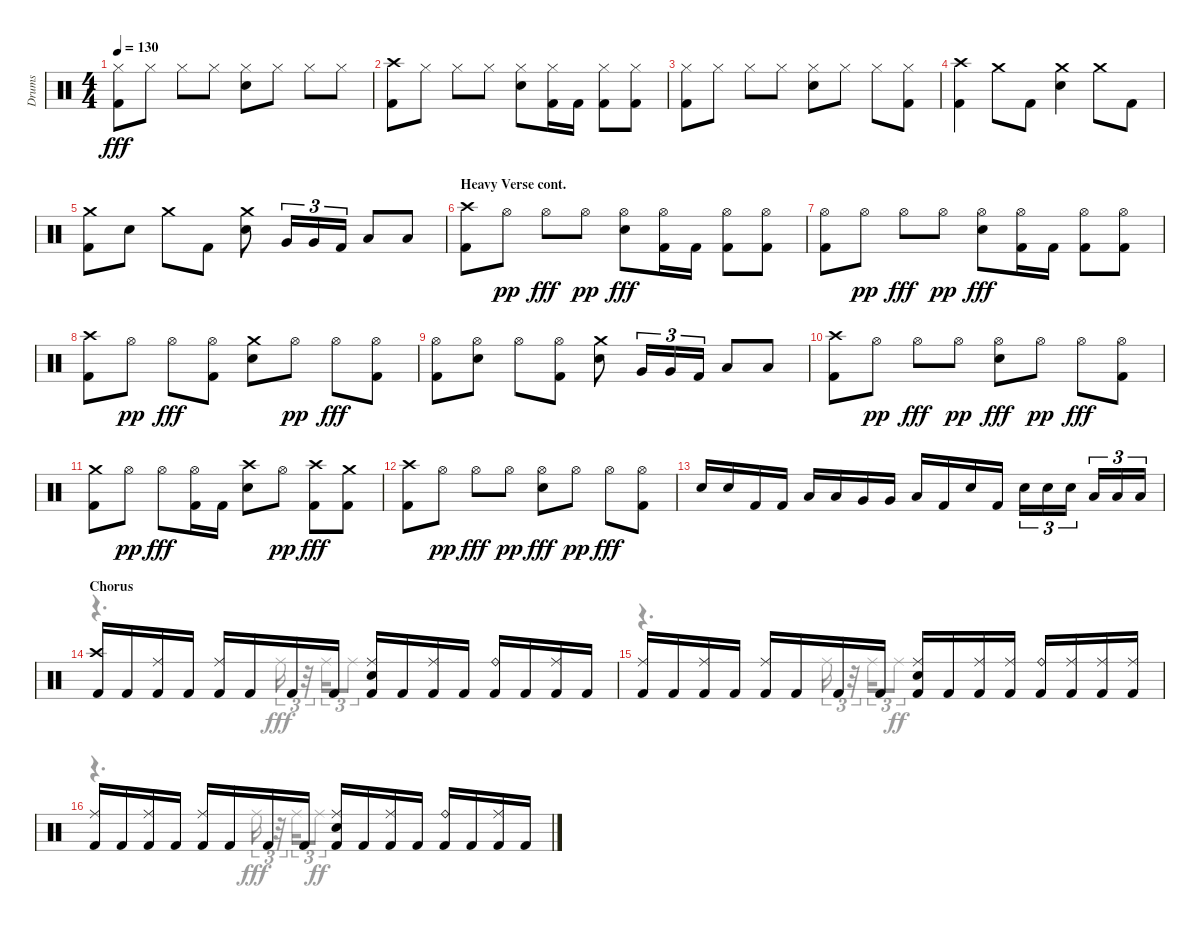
\track ("Drums" "Drums") {instrument percussion}
\staff {score}
\articulation defaults
\voice
\ts (4 4)
\tempo 130
\clef neutral
\ks aminor
("Kick (hit) 2" "Hi-Hat (closed)").8{dy fff} "Hi-Hat (closed)".8 "Hi-Hat (closed)".8 "Hi-Hat (closed)".8 ("Snare (hit) 2" "Hi-Hat (closed)").8 "Hi-Hat (closed)".8 "Hi-Hat (closed)".8 "Hi-Hat (closed)".8 |
("Kick (hit) 2" "Crash high (hit)").8 "Hi-Hat (closed)".8 "Hi-Hat (closed)".8 "Hi-Hat (closed)".8 ("Snare (hit) 2" "Hi-Hat (closed)").8 ("Kick (hit) 2" "Hi-Hat (closed)").16 "Kick (hit) 2".16 ("Kick (hit) 2" "Hi-Hat (closed)").8 ("Kick (hit) 2" "Hi-Hat (closed)").8 |
("Kick (hit) 2" "Hi-Hat (closed)").8 "Hi-Hat (closed)".8 "Hi-Hat (closed)".8 "Hi-Hat (closed)".8 ("Snare (hit) 2" "Hi-Hat (closed)").8 "Hi-Hat (closed)".8 "Hi-Hat (closed)".8 ("Kick (hit) 2" "Hi-Hat (closed)").8 |
("Kick (hit) 2" "Crash high (hit)").4 "Crash medium (hit)".8 "Kick (hit) 2".8 ("Snare (hit) 2" "Crash medium (hit)").4 "Crash medium (hit)".8 "Kick (hit) 2".8 |
("Kick (hit) 2" "Crash medium (hit)").8 "Snare (hit) 2".8 "Crash medium (hit)".8 "Kick (hit) 2".8 ("Snare (hit) 2" "Crash medium (hit)").8 "Very Low Tom (hit)".16{tu (3 2)} "Very Low Tom (hit)".16{tu (3 2)} "Kick (hit) 2".16{tu (3 2)} "Low Floor Tom (hit)".8 "Low Floor Tom (hit)".8 |
\section ("" "Heavy Verse cont.")
("Kick (hit) 2" "Crash high (hit)").8 "Hi-Hat (open)".8{dy pp} "Hi-Hat (open)".8{dy fff} "Hi-Hat (open)".8{dy pp} ("Snare (hit) 2" "Hi-Hat (open)").8{dy fff} ("Kick (hit) 2" "Hi-Hat (open)").16 "Kick (hit) 2".16 ("Kick (hit) 2" "Hi-Hat (open)").8 ("Kick (hit) 2" "Hi-Hat (open)").8 |
("Kick (hit) 2" "Hi-Hat (open)").8 "Hi-Hat (open)".8{dy pp} "Hi-Hat (open)".8{dy fff} "Hi-Hat (open)".8{dy pp} ("Snare (hit) 2" "Hi-Hat (open)").8{dy fff} ("Kick (hit) 2" "Hi-Hat (open)").16 "Kick (hit) 2".16 ("Kick (hit) 2" "Hi-Hat (open)").8 ("Kick (hit) 2" "Hi-Hat (open)").8 |
("Kick (hit) 2" "Crash high (hit)").8 "Hi-Hat (open)".8{dy pp} "Hi-Hat (open)".8{dy fff} ("Kick (hit) 2" "Hi-Hat (open)").8 ("Snare (hit) 2" "Crash medium (hit)").8 "Hi-Hat (open)".8{dy pp} "Hi-Hat (open)".8{dy fff} ("Kick (hit) 2" "Hi-Hat (open)").8 |
("Kick (hit) 2" "Hi-Hat (open)").8 ("Snare (hit) 2" "Hi-Hat (open)").8 "Hi-Hat (open)".8 ("Kick (hit) 2" "Hi-Hat (open)").8 ("Snare (hit) 2" "Crash medium (hit)").8 "Very Low Tom (hit)".16{tu (3 2)} "Very Low Tom (hit)".16{tu (3 2)} "Kick (hit) 2".16{tu (3 2)} "Low Floor Tom (hit)".8 "Low Floor Tom (hit)".8 |
("Kick (hit) 2" "Crash high (hit)").8 "Hi-Hat (open)".8{dy pp} "Hi-Hat (open)".8{dy fff} "Hi-Hat (open)".8{dy pp} ("Snare (hit) 2" "Hi-Hat (open)").8{dy fff} "Hi-Hat (open)".8{dy pp} "Hi-Hat (open)".8{dy fff} ("Kick (hit) 2" "Hi-Hat (open)").8 |
("Kick (hit) 2" "Crash medium (hit)").8 "Hi-Hat (open)".8{dy pp} "Hi-Hat (open)".8{dy fff} ("Kick (hit) 2" "Hi-Hat (open)").16 "Kick (hit) 2".16 ("Snare (hit) 2" "Crash high (hit)").8 "Hi-Hat (open)".8{dy pp} ("Kick (hit) 2" "Crash high (hit)").8{dy fff} ("Kick (hit) 2" "Crash medium (hit)").8 |
("Kick (hit) 2" "Crash high (hit)").8 "Hi-Hat (open)".8{dy pp} "Hi-Hat (open)".8{dy fff} "Hi-Hat (open)".8{dy pp} ("Snare (hit) 2" "Hi-Hat (open)").8{dy fff} "Hi-Hat (open)".8{dy pp} "Hi-Hat (open)".8{dy fff} ("Kick (hit) 2" "Hi-Hat (open)").8 |
"Snare (hit) 2".16 "Snare (hit) 2".16 "Kick (hit) 2".16 "Kick (hit) 2".16 "Low Tom (hit)".16 "Low Tom (hit)".16 "Very Low Tom (hit)".16 "Very Low Tom (hit)".16 "Low Floor Tom (hit)".16 "Kick (hit) 2".16 "Snare (hit) 2".16 "Kick (hit) 2".16 "Snare (hit) 2".16{tu (3 2)} "Snare (hit) 2".16{tu (3 2)} "Snare (hit) 2".16{tu (3 2)} "Low Floor Tom (hit)".16{tu (3 2)} "Low Floor Tom (hit)".16{tu (3 2)} "Low Floor Tom (hit)".16{tu (3 2)} |
\section ("" "Chorus")
("Kick (hit) 2" "Crash high (hit)").16 "Kick (hit) 2".16 ("Kick (hit) 2" "Ride (middle)").16 "Kick (hit) 2".16 ("Kick (hit) 2" "Ride (middle)").16 "Kick (hit) 2".16 "Kick (hit) 2".16 "Kick (hit) 2".16 ("Kick (hit) 2" "Snare (hit) 2" "Ride (middle)").16 "Kick (hit) 2".16 ("Kick (hit) 2" "Ride (middle)").16 "Kick (hit) 2".16 ("Kick (hit) 2" "Ride (bell)").16 "Kick (hit) 2".16 ("Kick (hit) 2" "Ride (middle)").16 "Kick (hit) 2".16 |
("Kick (hit) 2" "Ride (middle)").16 "Kick (hit) 2".16 ("Kick (hit) 2" "Ride (middle)").16 "Kick (hit) 2".16 ("Kick (hit) 2" "Ride (middle)").16 "Kick (hit) 2".16 "Kick (hit) 2".16 "Kick (hit) 2".16 ("Ride (middle)" "Kick (hit) 2" "Snare (hit) 2").16 "Kick (hit) 2".16 ("Kick (hit) 2" "Ride (middle)").16 ("Kick (hit) 2" "Ride (middle)").16 ("Kick (hit) 2" "Ride (bell)").16 ("Kick (hit) 2" "Ride (middle)").16 ("Kick (hit) 2" "Ride (middle)").16 ("Kick (hit) 2" "Ride (middle)").16 |
("Kick (hit) 2" "Ride (middle)").16 "Kick (hit) 2".16 ("Kick (hit) 2" "Ride (middle)").16 "Kick (hit) 2".16 ("Kick (hit) 2" "Ride (middle)").16 "Kick (hit) 2".16 "Kick (hit) 2".16 "Kick (hit) 2".16 ("Kick (hit) 2" "Snare (hit) 2" "Ride (middle)").16 "Kick (hit) 2".16 ("Kick (hit) 2" "Ride (middle)").16 "Kick (hit) 2".16 ("Kick (hit) 2" "Ride (bell)").16 "Kick (hit) 2".16 ("Kick (hit) 2" "Ride (middle)").16 "Kick (hit) 2".16
\voice
\clef neutral
\ottava regular
\simile none
\ks aminor
|
|
|
|
|
|
|
|
|
|
|
|
|
r.4{d} "Ride (middle)".16{tu (3 2)} r.32{tu (3 2)} "Ride (middle)".16{tu (3 2)} "Ride (middle)".8{tu (3 2)} |
r.4{d} "Ride (middle)".16{tu (3 2)} r.32{tu (3 2)} "Ride (middle)".16{tu (3 2)} "Ride (middle)".8{tu (3 2) dy ff} |
r.4{d} "Ride (middle)".16{tu (3 2) dy fff} r.32{tu (3 2)} "Ride (middle)".16{tu (3 2)} "Ride (middle)".8{tu (3 2) dy ff}
